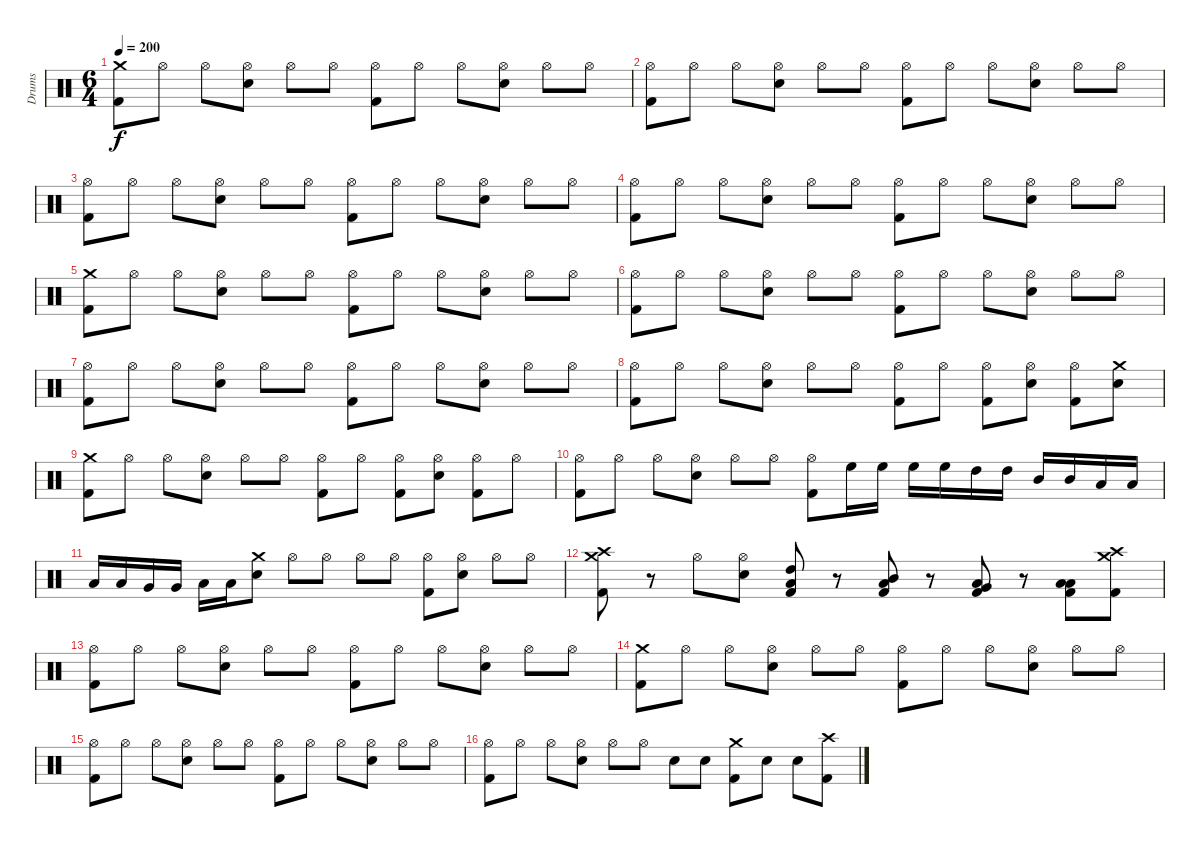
\track ("Drums" "Drums") {instrument percussion}
\staff {score}
\articulation defaults
\ts (6 4)
\tempo 200
\clef neutral
\ks c
("Kick (hit) 2" "Crash medium (hit)").8{dy f} "Hi-Hat (open)".8 "Hi-Hat (open)".8 ("Electric Snare (hit)" "Hi-Hat (open)").8 "Hi-Hat (open)".8 "Hi-Hat (open)".8 ("Kick (hit) 2" "Hi-Hat (open)").8 "Hi-Hat (open)".8 "Hi-Hat (open)".8 ("Electric Snare (hit)" "Hi-Hat (open)").8 "Hi-Hat (open)".8 "Hi-Hat (open)".8 |
("Kick (hit) 2" "Hi-Hat (open)").8 "Hi-Hat (open)".8 "Hi-Hat (open)".8 ("Electric Snare (hit)" "Hi-Hat (open)").8 "Hi-Hat (open)".8 "Hi-Hat (open)".8 ("Kick (hit) 2" "Hi-Hat (open)").8 "Hi-Hat (open)".8 "Hi-Hat (open)".8 ("Electric Snare (hit)" "Hi-Hat (open)").8 "Hi-Hat (open)".8 "Hi-Hat (open)".8 |
("Kick (hit) 2" "Hi-Hat (open)").8 "Hi-Hat (open)".8 "Hi-Hat (open)".8 ("Electric Snare (hit)" "Hi-Hat (open)").8 "Hi-Hat (open)".8 "Hi-Hat (open)".8 ("Kick (hit) 2" "Hi-Hat (open)").8 "Hi-Hat (open)".8 "Hi-Hat (open)".8 ("Electric Snare (hit)" "Hi-Hat (open)").8 "Hi-Hat (open)".8 "Hi-Hat (open)".8 |
("Kick (hit) 2" "Hi-Hat (open)").8 "Hi-Hat (open)".8 "Hi-Hat (open)".8 ("Electric Snare (hit)" "Hi-Hat (open)").8 "Hi-Hat (open)".8 "Hi-Hat (open)".8 ("Kick (hit) 2" "Hi-Hat (open)").8 "Hi-Hat (open)".8 "Hi-Hat (open)".8 ("Electric Snare (hit)" "Hi-Hat (open)").8 "Hi-Hat (open)".8 "Hi-Hat (open)".8 |
("Kick (hit) 2" "Crash medium (hit)").8 "Hi-Hat (open)".8 "Hi-Hat (open)".8 ("Electric Snare (hit)" "Hi-Hat (open)").8 "Hi-Hat (open)".8 "Hi-Hat (open)".8 ("Kick (hit) 2" "Hi-Hat (open)").8 "Hi-Hat (open)".8 "Hi-Hat (open)".8 ("Electric Snare (hit)" "Hi-Hat (open)").8 "Hi-Hat (open)".8 "Hi-Hat (open)".8 |
("Kick (hit) 2" "Hi-Hat (open)").8 "Hi-Hat (open)".8 "Hi-Hat (open)".8 ("Electric Snare (hit)" "Hi-Hat (open)").8 "Hi-Hat (open)".8 "Hi-Hat (open)".8 ("Kick (hit) 2" "Hi-Hat (open)").8 "Hi-Hat (open)".8 "Hi-Hat (open)".8 ("Electric Snare (hit)" "Hi-Hat (open)").8 "Hi-Hat (open)".8 "Hi-Hat (open)".8 |
("Kick (hit) 2" "Hi-Hat (open)").8 "Hi-Hat (open)".8 "Hi-Hat (open)".8 ("Electric Snare (hit)" "Hi-Hat (open)").8 "Hi-Hat (open)".8 "Hi-Hat (open)".8 ("Kick (hit) 2" "Hi-Hat (open)").8 "Hi-Hat (open)".8 "Hi-Hat (open)".8 ("Electric Snare (hit)" "Hi-Hat (open)").8 "Hi-Hat (open)".8 "Hi-Hat (open)".8 |
("Kick (hit) 2" "Hi-Hat (open)").8 "Hi-Hat (open)".8 "Hi-Hat (open)".8 ("Electric Snare (hit)" "Hi-Hat (open)").8 "Hi-Hat (open)".8 "Hi-Hat (open)".8 ("Kick (hit) 2" "Hi-Hat (open)").8 "Hi-Hat (open)".8 ("Kick (hit) 2" "Hi-Hat (open)").8 ("Electric Snare (hit)" "Hi-Hat (open)").8 ("Kick (hit) 2" "Hi-Hat (open)").8 ("Electric Snare (hit)" "Crash medium (hit)").8 |
("Kick (hit) 2" "Crash medium (hit)").8 "Hi-Hat (open)".8 "Hi-Hat (open)".8 ("Electric Snare (hit)" "Hi-Hat (open)").8 "Hi-Hat (open)".8 "Hi-Hat (open)".8 ("Kick (hit) 2" "Hi-Hat (open)").8 "Hi-Hat (open)".8 ("Kick (hit) 2" "Hi-Hat (open)").8 ("Electric Snare (hit)" "Hi-Hat (open)").8 ("Kick (hit) 2" "Hi-Hat (open)").8 "Hi-Hat (open)".8 |
("Kick (hit) 2" "Hi-Hat (open)").8 "Hi-Hat (open)".8 "Hi-Hat (open)".8 ("Electric Snare (hit)" "Hi-Hat (open)").8 "Hi-Hat (open)".8 "Hi-Hat (open)".8 ("Kick (hit) 2" "Hi-Hat (open)").8 "High Floor Tom (hit)".16 "High Floor Tom (hit)".16 "High Floor Tom (hit)".16 "High Floor Tom (hit)".16 "High Tom (hit)".16 "High Tom (hit)".16 "Mid Tom (hit)".16 "Mid Tom (hit)".16 "Low Tom (hit)".16 "Low Tom (hit)".16 |
"Low Tom (hit)".16 "Low Tom (hit)".16 "Very Low Tom (hit)".16 "Very Low Tom (hit)".16 "Low Floor Tom (hit)".16 "Low Floor Tom (hit)".16 ("Electric Snare (hit)" "Crash medium (hit)").8 "Hi-Hat (open)".8 "Hi-Hat (open)".8 "Hi-Hat (open)".8 "Hi-Hat (open)".8 ("Kick (hit) 2" "Hi-Hat (open)").8 ("Electric Snare (hit)" "Hi-Hat (open)").8 "Hi-Hat (open)".8 "Hi-Hat (open)".8 |
("Kick (hit) 2" "Crash high (hit)" "Crash medium (hit)").8 r.8 "Hi-Hat (open)".8 ("Electric Snare (hit)" "Hi-Hat (open)").8 ("Kick (hit) 2" "High Tom (hit)" "Low Tom (hit)").8 r.8 ("Kick (hit) 2" "Mid Tom (hit)" "Low Tom (hit)").8 r.8 ("Kick (hit) 2" "Very Low Tom (hit)" "Low Tom (hit)").8 r.8 ("Kick (hit) 2" "Low Floor Tom (hit)" "Low Tom (hit)").8 ("Kick (hit) 2" "Crash high (hit)" "Crash medium (hit)").8 |
("Kick (hit) 2" "Hi-Hat (open)").8 "Hi-Hat (open)".8 "Hi-Hat (open)".8 ("Electric Snare (hit)" "Hi-Hat (open)").8 "Hi-Hat (open)".8 "Hi-Hat (open)".8 ("Kick (hit) 2" "Hi-Hat (open)").8 "Hi-Hat (open)".8 "Hi-Hat (open)".8 ("Electric Snare (hit)" "Hi-Hat (open)").8 "Hi-Hat (open)".8 "Hi-Hat (open)".8 |
("Kick (hit) 2" "Crash medium (hit)").8 "Hi-Hat (open)".8 "Hi-Hat (open)".8 ("Electric Snare (hit)" "Hi-Hat (open)").8 "Hi-Hat (open)".8 "Hi-Hat (open)".8 ("Kick (hit) 2" "Hi-Hat (open)").8 "Hi-Hat (open)".8 "Hi-Hat (open)".8 ("Electric Snare (hit)" "Hi-Hat (open)").8 "Hi-Hat (open)".8 "Hi-Hat (open)".8 |
("Kick (hit) 2" "Hi-Hat (open)").8 "Hi-Hat (open)".8 "Hi-Hat (open)".8 ("Electric Snare (hit)" "Hi-Hat (open)").8 "Hi-Hat (open)".8 "Hi-Hat (open)".8 ("Kick (hit) 2" "Hi-Hat (open)").8 "Hi-Hat (open)".8 "Hi-Hat (open)".8 ("Electric Snare (hit)" "Hi-Hat (open)").8 "Hi-Hat (open)".8 "Hi-Hat (open)".8 |
("Kick (hit) 2" "Hi-Hat (open)").8 "Hi-Hat (open)".8 "Hi-Hat (open)".8 ("Electric Snare (hit)" "Hi-Hat (open)").8 "Hi-Hat (open)".8 "Hi-Hat (open)".8 "Electric Snare (hit)".8 "Electric Snare (hit)".8 ("Kick (hit) 2" "Crash medium (hit)").8 "Electric Snare (hit)".8 "Electric Snare (hit)".8 ("Kick (hit) 2" "Crash high (hit)").8
